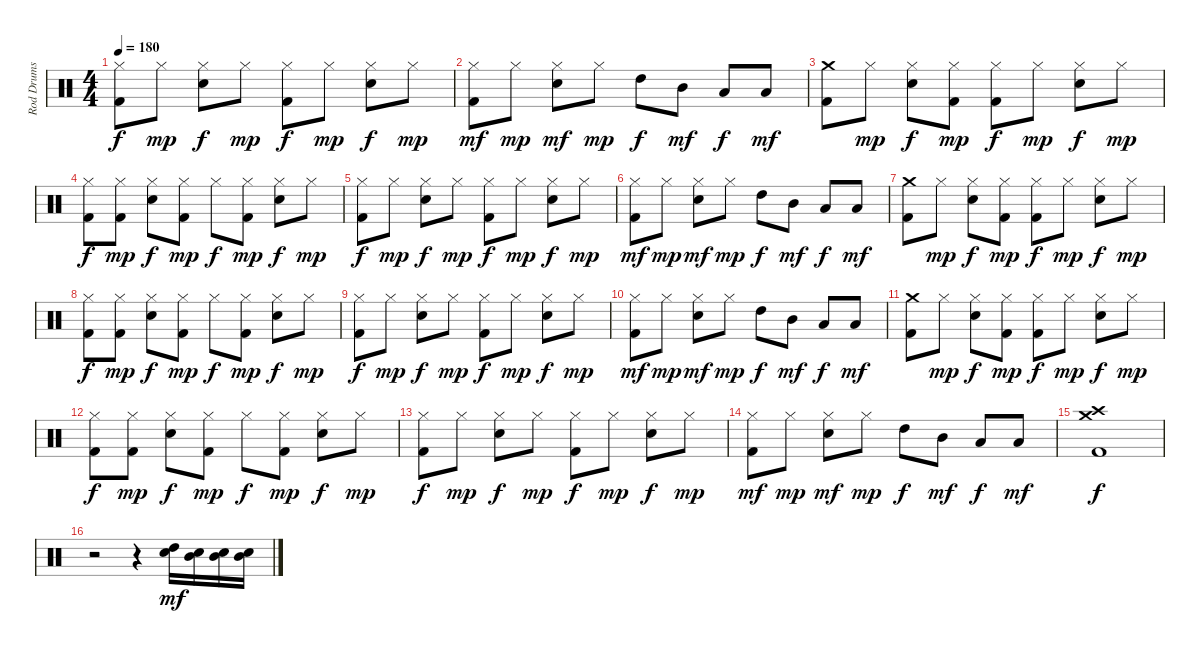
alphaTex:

\track ("Rod Drums" "Rod Drums") {instrument percussion}
\staff {score}
\articulation defaults
\ts (4 4)
\tempo 180
\clef neutral
\ks c
("Hi-Hat (closed)" "Kick (hit) 2").8{dy f} "Hi-Hat (closed)".8{dy mp} ("Hi-Hat (closed)" "Snare (hit) 2").8{dy f} "Hi-Hat (closed)".8{dy mp} ("Hi-Hat (closed)" "Kick (hit) 2").8{dy f} "Hi-Hat (closed)".8{dy mp} ("Hi-Hat (closed)" "Snare (hit) 2").8{dy f} "Hi-Hat (closed)".8{dy mp} |
("Hi-Hat (closed)" "Kick (hit) 2").8{dy mf} "Hi-Hat (closed)".8{dy mp} ("Hi-Hat (closed)" "Snare (hit) 2").8{dy mf} "Hi-Hat (closed)".8{dy mp} "High Tom (hit)".8{dy f} "Mid Tom (hit)".8{dy mf} "Low Tom (hit)".8{dy f} "Low Tom (hit)".8{dy mf} |
("Crash medium (hit)" "Kick (hit) 2").8 "Hi-Hat (closed)".8{dy mp} ("Hi-Hat (closed)" "Snare (hit) 2").8{dy f} ("Hi-Hat (closed)" "Kick (hit) 2").8{dy mp} ("Hi-Hat (closed)" "Kick (hit) 2").8{dy f} "Hi-Hat (closed)".8{dy mp} ("Hi-Hat (closed)" "Snare (hit) 2").8{dy f} "Hi-Hat (closed)".8{dy mp} |
("Hi-Hat (closed)" "Kick (hit) 2").8{dy f} ("Hi-Hat (closed)" "Kick (hit) 2").8{dy mp} ("Hi-Hat (closed)" "Snare (hit) 2").8{dy f} ("Hi-Hat (closed)" "Kick (hit) 2").8{dy mp} "Hi-Hat (closed)".8{dy f} ("Hi-Hat (closed)" "Kick (hit) 2").8{dy mp} ("Hi-Hat (closed)" "Snare (hit) 2").8{dy f} "Hi-Hat (closed)".8{dy mp} |
("Hi-Hat (closed)" "Kick (hit) 2").8{dy f} "Hi-Hat (closed)".8{dy mp} ("Hi-Hat (closed)" "Snare (hit) 2").8{dy f} "Hi-Hat (closed)".8{dy mp} ("Hi-Hat (closed)" "Kick (hit) 2").8{dy f} "Hi-Hat (closed)".8{dy mp} ("Hi-Hat (closed)" "Snare (hit) 2").8{dy f} "Hi-Hat (closed)".8{dy mp} |
("Hi-Hat (closed)" "Kick (hit) 2").8{dy mf} "Hi-Hat (closed)".8{dy mp} ("Hi-Hat (closed)" "Snare (hit) 2").8{dy mf} "Hi-Hat (closed)".8{dy mp} "High Tom (hit)".8{dy f} "Mid Tom (hit)".8{dy mf} "Low Tom (hit)".8{dy f} "Low Tom (hit)".8{dy mf} |
("Crash medium (hit)" "Kick (hit) 2").8 "Hi-Hat (closed)".8{dy mp} ("Hi-Hat (closed)" "Snare (hit) 2").8{dy f} ("Hi-Hat (closed)" "Kick (hit) 2").8{dy mp} ("Hi-Hat (closed)" "Kick (hit) 2").8{dy f} "Hi-Hat (closed)".8{dy mp} ("Hi-Hat (closed)" "Snare (hit) 2").8{dy f} "Hi-Hat (closed)".8{dy mp} |
("Hi-Hat (closed)" "Kick (hit) 2").8{dy f} ("Hi-Hat (closed)" "Kick (hit) 2").8{dy mp} ("Hi-Hat (closed)" "Snare (hit) 2").8{dy f} ("Hi-Hat (closed)" "Kick (hit) 2").8{dy mp} "Hi-Hat (closed)".8{dy f} ("Hi-Hat (closed)" "Kick (hit) 2").8{dy mp} ("Hi-Hat (closed)" "Snare (hit) 2").8{dy f} "Hi-Hat (closed)".8{dy mp} |
("Hi-Hat (closed)" "Kick (hit) 2").8{dy f} "Hi-Hat (closed)".8{dy mp} ("Hi-Hat (closed)" "Snare (hit) 2").8{dy f} "Hi-Hat (closed)".8{dy mp} ("Hi-Hat (closed)" "Kick (hit) 2").8{dy f} "Hi-Hat (closed)".8{dy mp} ("Hi-Hat (closed)" "Snare (hit) 2").8{dy f} "Hi-Hat (closed)".8{dy mp} |
("Hi-Hat (closed)" "Kick (hit) 2").8{dy mf} "Hi-Hat (closed)".8{dy mp} ("Hi-Hat (closed)" "Snare (hit) 2").8{dy mf} "Hi-Hat (closed)".8{dy mp} "High Tom (hit)".8{dy f} "Mid Tom (hit)".8{dy mf} "Low Tom (hit)".8{dy f} "Low Tom (hit)".8{dy mf} |
("Crash medium (hit)" "Kick (hit) 2").8 "Hi-Hat (closed)".8{dy mp} ("Hi-Hat (closed)" "Snare (hit) 2").8{dy f} ("Hi-Hat (closed)" "Kick (hit) 2").8{dy mp} ("Hi-Hat (closed)" "Kick (hit) 2").8{dy f} "Hi-Hat (closed)".8{dy mp} ("Hi-Hat (closed)" "Snare (hit) 2").8{dy f} "Hi-Hat (closed)".8{dy mp} |
("Hi-Hat (closed)" "Kick (hit) 2").8{dy f} ("Hi-Hat (closed)" "Kick (hit) 2").8{dy mp} ("Hi-Hat (closed)" "Snare (hit) 2").8{dy f} ("Hi-Hat (closed)" "Kick (hit) 2").8{dy mp} "Hi-Hat (closed)".8{dy f} ("Hi-Hat (closed)" "Kick (hit) 2").8{dy mp} ("Hi-Hat (closed)" "Snare (hit) 2").8{dy f} "Hi-Hat (closed)".8{dy mp} |
("Hi-Hat (closed)" "Kick (hit) 2").8{dy f} "Hi-Hat (closed)".8{dy mp} ("Hi-Hat (closed)" "Snare (hit) 2").8{dy f} "Hi-Hat (closed)".8{dy mp} ("Hi-Hat (closed)" "Kick (hit) 2").8{dy f} "Hi-Hat (closed)".8{dy mp} ("Hi-Hat (closed)" "Snare (hit) 2").8{dy f} "Hi-Hat (closed)".8{dy mp} |
("Hi-Hat (closed)" "Kick (hit) 2").8{dy mf} "Hi-Hat (closed)".8{dy mp} ("Hi-Hat (closed)" "Snare (hit) 2").8{dy mf} "Hi-Hat (closed)".8{dy mp} "High Tom (hit)".8{dy f} "Mid Tom (hit)".8{dy mf} "Low Tom (hit)".8{dy f} "Low Tom (hit)".8{dy mf} |
("Crash high (hit)" "Kick (hit) 2" "Crash medium (hit)").1{dy f} |
r.2 r.4 ("High Tom (hit)" "Snare (hit) 2").16{dy mf} ("Mid Tom (hit)" "Snare (hit) 2").16 ("Mid Tom (hit)" "Snare (hit) 2").16 ("Mid Tom (hit)" "Snare (hit) 2").16
